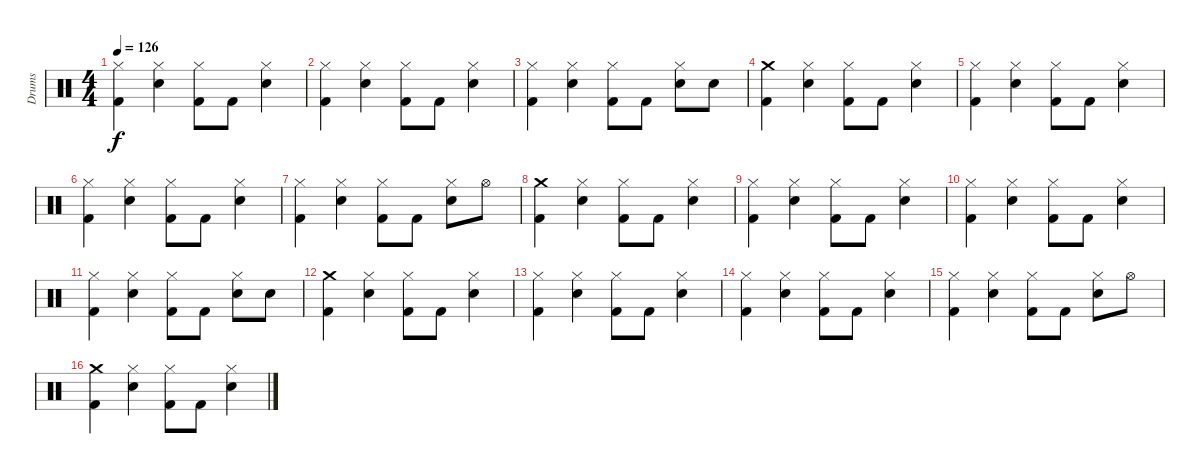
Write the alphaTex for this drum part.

\track ("Drums" "Drums") {instrument percussion}
\staff {score}
\articulation defaults
\ts (4 4)
\tempo 126
\clef neutral
\ks c
("Hi-Hat (closed)" "Kick (hit) 2").4{dy f} ("Hi-Hat (closed)" "Electric Snare (hit)").4 ("Hi-Hat (closed)" "Kick (hit) 2").8 "Kick (hit) 2".8 ("Hi-Hat (closed)" "Electric Snare (hit)").4 |
("Hi-Hat (closed)" "Kick (hit) 2").4 ("Hi-Hat (closed)" "Electric Snare (hit)").4 ("Hi-Hat (closed)" "Kick (hit) 2").8 "Kick (hit) 2".8 ("Hi-Hat (closed)" "Electric Snare (hit)").4 |
("Hi-Hat (closed)" "Kick (hit) 2").4 ("Hi-Hat (closed)" "Electric Snare (hit)").4 ("Hi-Hat (closed)" "Kick (hit) 2").8 "Kick (hit) 2".8 ("Hi-Hat (closed)" "Electric Snare (hit)").8 "Electric Snare (hit)".8 |
("Crash medium (hit)" "Kick (hit) 2").4 ("Hi-Hat (closed)" "Electric Snare (hit)").4 ("Hi-Hat (closed)" "Kick (hit) 2").8 "Kick (hit) 2".8 ("Hi-Hat (closed)" "Electric Snare (hit)").4 |
("Hi-Hat (closed)" "Kick (hit) 2").4 ("Hi-Hat (closed)" "Electric Snare (hit)").4 ("Hi-Hat (closed)" "Kick (hit) 2").8 "Kick (hit) 2".8 ("Hi-Hat (closed)" "Electric Snare (hit)").4 |
("Hi-Hat (closed)" "Kick (hit) 2").4 ("Hi-Hat (closed)" "Electric Snare (hit)").4 ("Hi-Hat (closed)" "Kick (hit) 2").8 "Kick (hit) 2".8 ("Hi-Hat (closed)" "Electric Snare (hit)").4 |
("Hi-Hat (closed)" "Kick (hit) 2").4 ("Hi-Hat (closed)" "Electric Snare (hit)").4 ("Hi-Hat (closed)" "Kick (hit) 2").8 "Kick (hit) 2".8 ("Hi-Hat (closed)" "Electric Snare (hit)").8 "Hi-Hat (open)".8 |
("Crash medium (hit)" "Kick (hit) 2").4 ("Hi-Hat (closed)" "Electric Snare (hit)").4 ("Hi-Hat (closed)" "Kick (hit) 2").8 "Kick (hit) 2".8 ("Hi-Hat (closed)" "Electric Snare (hit)").4 |
("Hi-Hat (closed)" "Kick (hit) 2").4 ("Hi-Hat (closed)" "Electric Snare (hit)").4 ("Hi-Hat (closed)" "Kick (hit) 2").8 "Kick (hit) 2".8 ("Hi-Hat (closed)" "Electric Snare (hit)").4 |
("Hi-Hat (closed)" "Kick (hit) 2").4 ("Hi-Hat (closed)" "Electric Snare (hit)").4 ("Hi-Hat (closed)" "Kick (hit) 2").8 "Kick (hit) 2".8 ("Hi-Hat (closed)" "Electric Snare (hit)").4 |
("Hi-Hat (closed)" "Kick (hit) 2").4 ("Hi-Hat (closed)" "Electric Snare (hit)").4 ("Hi-Hat (closed)" "Kick (hit) 2").8 "Kick (hit) 2".8 ("Hi-Hat (closed)" "Electric Snare (hit)").8 "Electric Snare (hit)".8 |
("Crash medium (hit)" "Kick (hit) 2").4 ("Hi-Hat (closed)" "Electric Snare (hit)").4 ("Hi-Hat (closed)" "Kick (hit) 2").8 "Kick (hit) 2".8 ("Hi-Hat (closed)" "Electric Snare (hit)").4 |
("Hi-Hat (closed)" "Kick (hit) 2").4 ("Hi-Hat (closed)" "Electric Snare (hit)").4 ("Hi-Hat (closed)" "Kick (hit) 2").8 "Kick (hit) 2".8 ("Hi-Hat (closed)" "Electric Snare (hit)").4 |
("Hi-Hat (closed)" "Kick (hit) 2").4 ("Hi-Hat (closed)" "Electric Snare (hit)").4 ("Hi-Hat (closed)" "Kick (hit) 2").8 "Kick (hit) 2".8 ("Hi-Hat (closed)" "Electric Snare (hit)").4 |
("Hi-Hat (closed)" "Kick (hit) 2").4 ("Hi-Hat (closed)" "Electric Snare (hit)").4 ("Hi-Hat (closed)" "Kick (hit) 2").8 "Kick (hit) 2".8 ("Hi-Hat (closed)" "Electric Snare (hit)").8 "Hi-Hat (open)".8 |
("Crash medium (hit)" "Kick (hit) 2").4 ("Hi-Hat (closed)" "Electric Snare (hit)").4 ("Hi-Hat (closed)" "Kick (hit) 2").8 "Kick (hit) 2".8 ("Hi-Hat (closed)" "Electric Snare (hit)").4
